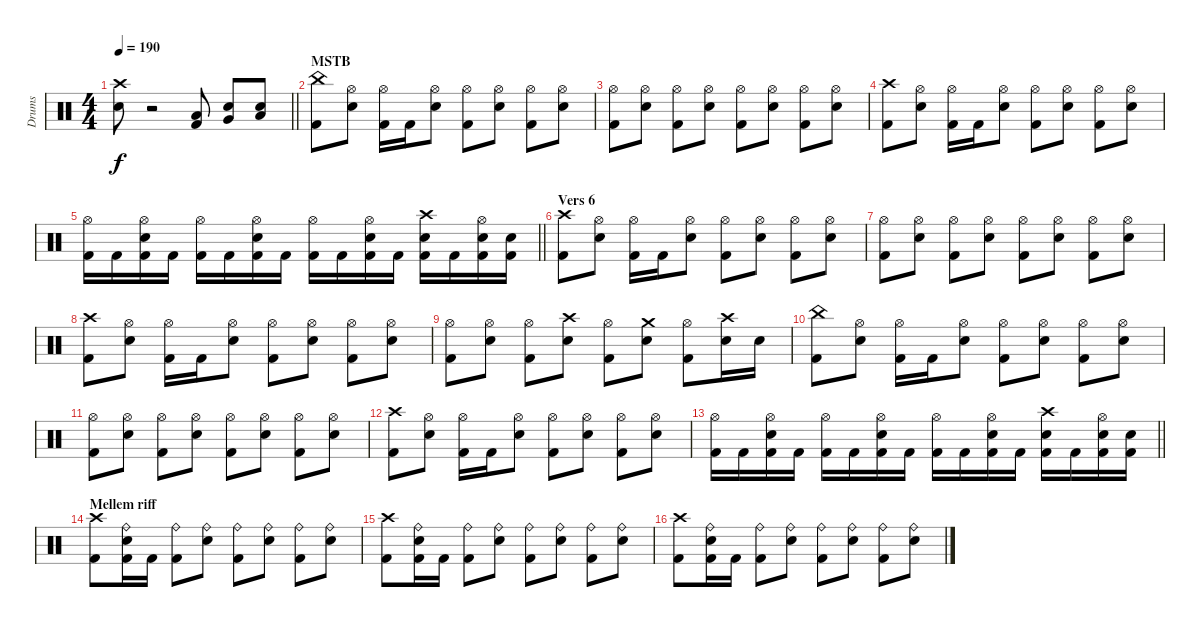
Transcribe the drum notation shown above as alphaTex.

\track ("Drums" "Drums") {instrument percussion}
\staff {score}
\articulation defaults
\ts (4 4)
\tempo 190
\clef neutral
\barLineRight lightlight
\ks c
("Crash high (hit)" "Snare (hit) 2").8{dy f} r.2 ("Low Tom (hit)" "Kick (hit) 2").8 ("Very Low Tom (hit)" "Snare (hit) 2").8 ("Low Floor Tom (hit)" "Snare (hit) 2").8 |
\section ("" "MSTB")
("China (hit)" "Kick (hit) 2").8 ("Hi-Hat (open)" "Snare (hit) 2").8 ("Hi-Hat (open)" "Kick (hit) 2").16 "Kick (hit) 2".16 ("Hi-Hat (open)" "Snare (hit) 2").8 ("Hi-Hat (open)" "Kick (hit) 2").8 ("Hi-Hat (open)" "Snare (hit) 2").8 ("Hi-Hat (open)" "Kick (hit) 2").8 ("Hi-Hat (open)" "Snare (hit) 2").8 |
("Hi-Hat (open)" "Kick (hit) 2").8 ("Hi-Hat (open)" "Snare (hit) 2").8 ("Hi-Hat (open)" "Kick (hit) 2").8 ("Hi-Hat (open)" "Snare (hit) 2").8 ("Hi-Hat (open)" "Kick (hit) 2").8 ("Hi-Hat (open)" "Snare (hit) 2").8 ("Hi-Hat (open)" "Kick (hit) 2").8 ("Hi-Hat (open)" "Snare (hit) 2").8 |
("Crash high (hit)" "Kick (hit) 2").8 ("Hi-Hat (open)" "Snare (hit) 2").8 ("Hi-Hat (open)" "Kick (hit) 2").16 "Kick (hit) 2".16 ("Hi-Hat (open)" "Snare (hit) 2").8 ("Hi-Hat (open)" "Kick (hit) 2").8 ("Hi-Hat (open)" "Snare (hit) 2").8 ("Hi-Hat (open)" "Kick (hit) 2").8 ("Hi-Hat (open)" "Snare (hit) 2").8 |
\barLineRight lightlight
("Hi-Hat (open)" "Kick (hit) 2").16 "Kick (hit) 2".16 ("Hi-Hat (open)" "Snare (hit) 2" "Kick (hit) 2").16 "Kick (hit) 2".16 ("Hi-Hat (open)" "Kick (hit) 2").16 "Kick (hit) 2".16 ("Hi-Hat (open)" "Snare (hit) 2" "Kick (hit) 2").16 "Kick (hit) 2".16 ("Hi-Hat (open)" "Kick (hit) 2").16 "Kick (hit) 2".16 ("Hi-Hat (open)" "Snare (hit) 2" "Kick (hit) 2").16 "Kick (hit) 2".16 ("Crash high (hit)" "Snare (hit) 2" "Kick (hit) 2").16 "Kick (hit) 2".16 ("Hi-Hat (open)" "Snare (hit) 2" "Kick (hit) 2").16 ("Snare (hit) 2" "Kick (hit) 2").16 |
\section ("" "Vers 6")
("Crash high (hit)" "Kick (hit) 2").8 ("Hi-Hat (open)" "Snare (hit) 2").8 ("Hi-Hat (open)" "Kick (hit) 2").16 "Kick (hit) 2".16 ("Hi-Hat (open)" "Snare (hit) 2").8 ("Hi-Hat (open)" "Kick (hit) 2").8 ("Hi-Hat (open)" "Snare (hit) 2").8 ("Hi-Hat (open)" "Kick (hit) 2").8 ("Hi-Hat (open)" "Snare (hit) 2").8 |
("Hi-Hat (open)" "Kick (hit) 2").8 ("Hi-Hat (open)" "Snare (hit) 2").8 ("Hi-Hat (open)" "Kick (hit) 2").8 ("Hi-Hat (open)" "Snare (hit) 2").8 ("Hi-Hat (open)" "Kick (hit) 2").8 ("Hi-Hat (open)" "Snare (hit) 2").8 ("Hi-Hat (open)" "Kick (hit) 2").8 ("Hi-Hat (open)" "Snare (hit) 2").8 |
("Crash high (hit)" "Kick (hit) 2").8 ("Hi-Hat (open)" "Snare (hit) 2").8 ("Hi-Hat (open)" "Kick (hit) 2").16 "Kick (hit) 2".16 ("Hi-Hat (open)" "Snare (hit) 2").8 ("Hi-Hat (open)" "Kick (hit) 2").8 ("Hi-Hat (open)" "Snare (hit) 2").8 ("Hi-Hat (open)" "Kick (hit) 2").8 ("Hi-Hat (open)" "Snare (hit) 2").8 |
("Hi-Hat (open)" "Kick (hit) 2").8 ("Hi-Hat (open)" "Snare (hit) 2").8 ("Hi-Hat (open)" "Kick (hit) 2").8 ("Crash high (hit)" "Snare (hit) 2").8 ("Hi-Hat (open)" "Kick (hit) 2").8 ("Crash medium (hit)" "Snare (hit) 2").8 ("Hi-Hat (open)" "Kick (hit) 2").8 ("Crash high (hit)" "Snare (hit) 2").16 "Snare (hit) 2".16 |
("China (hit)" "Kick (hit) 2").8 ("Hi-Hat (open)" "Snare (hit) 2").8 ("Hi-Hat (open)" "Kick (hit) 2").16 "Kick (hit) 2".16 ("Hi-Hat (open)" "Snare (hit) 2").8 ("Hi-Hat (open)" "Kick (hit) 2").8 ("Hi-Hat (open)" "Snare (hit) 2").8 ("Hi-Hat (open)" "Kick (hit) 2").8 ("Hi-Hat (open)" "Snare (hit) 2").8 |
("Hi-Hat (open)" "Kick (hit) 2").8 ("Hi-Hat (open)" "Snare (hit) 2").8 ("Hi-Hat (open)" "Kick (hit) 2").8 ("Hi-Hat (open)" "Snare (hit) 2").8 ("Hi-Hat (open)" "Kick (hit) 2").8 ("Hi-Hat (open)" "Snare (hit) 2").8 ("Hi-Hat (open)" "Kick (hit) 2").8 ("Hi-Hat (open)" "Snare (hit) 2").8 |
("Crash high (hit)" "Kick (hit) 2").8 ("Hi-Hat (open)" "Snare (hit) 2").8 ("Hi-Hat (open)" "Kick (hit) 2").16 "Kick (hit) 2".16 ("Hi-Hat (open)" "Snare (hit) 2").8 ("Hi-Hat (open)" "Kick (hit) 2").8 ("Hi-Hat (open)" "Snare (hit) 2").8 ("Hi-Hat (open)" "Kick (hit) 2").8 ("Hi-Hat (open)" "Snare (hit) 2").8 |
\barLineRight lightlight
("Hi-Hat (open)" "Kick (hit) 2").16 "Kick (hit) 2".16 ("Hi-Hat (open)" "Snare (hit) 2" "Kick (hit) 2").16 "Kick (hit) 2".16 ("Hi-Hat (open)" "Kick (hit) 2").16 "Kick (hit) 2".16 ("Hi-Hat (open)" "Snare (hit) 2" "Kick (hit) 2").16 "Kick (hit) 2".16 ("Hi-Hat (open)" "Kick (hit) 2").16 "Kick (hit) 2".16 ("Hi-Hat (open)" "Snare (hit) 2" "Kick (hit) 2").16 "Kick (hit) 2".16 ("Crash high (hit)" "Snare (hit) 2" "Kick (hit) 2").16 "Kick (hit) 2".16 ("Hi-Hat (open)" "Snare (hit) 2" "Kick (hit) 2").16 ("Snare (hit) 2" "Kick (hit) 2").16 |
\section ("" "Mellem riff")
("Crash high (hit)" "Kick (hit) 2").8 ("Ride (bell)" "Snare (hit) 2" "Kick (hit) 2").16 "Kick (hit) 2".16 ("Ride (bell)" "Kick (hit) 2").8 ("Ride (bell)" "Snare (hit) 2").8 ("Ride (bell)" "Kick (hit) 2").8 ("Ride (bell)" "Snare (hit) 2").8 ("Ride (bell)" "Kick (hit) 2").8 ("Ride (bell)" "Snare (hit) 2").8 |
("Crash high (hit)" "Kick (hit) 2").8 ("Ride (bell)" "Snare (hit) 2" "Kick (hit) 2").16 "Kick (hit) 2".16 ("Ride (bell)" "Kick (hit) 2").8 ("Ride (bell)" "Snare (hit) 2").8 ("Ride (bell)" "Kick (hit) 2").8 ("Ride (bell)" "Snare (hit) 2").8 ("Ride (bell)" "Kick (hit) 2").8 ("Ride (bell)" "Snare (hit) 2").8 |
("Crash high (hit)" "Kick (hit) 2").8 ("Ride (bell)" "Snare (hit) 2" "Kick (hit) 2").16 "Kick (hit) 2".16 ("Ride (bell)" "Kick (hit) 2").8 ("Ride (bell)" "Snare (hit) 2").8 ("Ride (bell)" "Kick (hit) 2").8 ("Ride (bell)" "Snare (hit) 2").8 ("Ride (bell)" "Kick (hit) 2").8 ("Ride (bell)" "Snare (hit) 2").8
